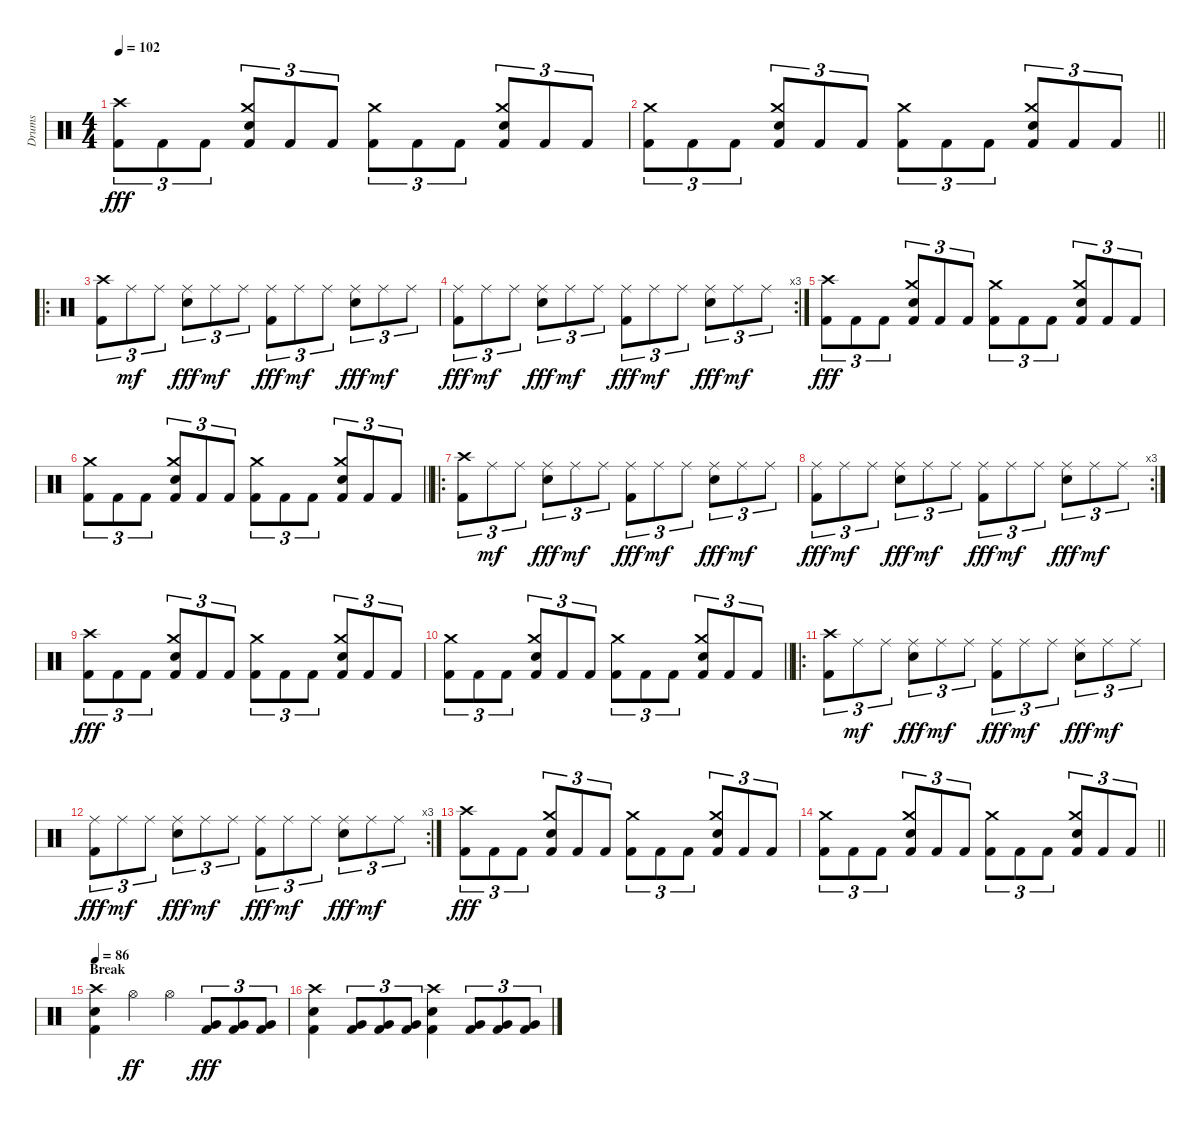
\track ("Drums" "Drums") {instrument percussion}
\staff {score}
\articulation defaults
\ts (4 4)
\tempo 102
\clef neutral
\ks c
("Crash high (hit)" "Kick (hit) 2").8{tu (3 2) dy fff} "Kick (hit) 2".8{tu (3 2)} "Kick (hit) 2".8{tu (3 2)} ("Crash medium (hit)" "Electric Snare (hit)" "Kick (hit) 2").8{tu (3 2)} "Kick (hit) 2".8{tu (3 2)} "Kick (hit) 2".8{tu (3 2)} ("Crash medium (hit)" "Kick (hit) 2").8{tu (3 2)} "Kick (hit) 2".8{tu (3 2)} "Kick (hit) 2".8{tu (3 2)} ("Crash medium (hit)" "Electric Snare (hit)" "Kick (hit) 2").8{tu (3 2)} "Kick (hit) 2".8{tu (3 2)} "Kick (hit) 2".8{tu (3 2)} |
\barLineRight lightlight
("Crash medium (hit)" "Kick (hit) 2").8{tu (3 2)} "Kick (hit) 2".8{tu (3 2)} "Kick (hit) 2".8{tu (3 2)} ("Crash medium (hit)" "Electric Snare (hit)" "Kick (hit) 2").8{tu (3 2)} "Kick (hit) 2".8{tu (3 2)} "Kick (hit) 2".8{tu (3 2)} ("Crash medium (hit)" "Kick (hit) 2").8{tu (3 2)} "Kick (hit) 2".8{tu (3 2)} "Kick (hit) 2".8{tu (3 2)} ("Crash medium (hit)" "Electric Snare (hit)" "Kick (hit) 2").8{tu (3 2)} "Kick (hit) 2".8{tu (3 2)} "Kick (hit) 2".8{tu (3 2)} |
\ro
("Crash high (hit)" "Kick (hit) 2").8{tu (3 2)} "Ride (middle)".8{tu (3 2) dy mf} "Ride (middle)".8{tu (3 2)} ("Ride (middle)" "Electric Snare (hit)").8{tu (3 2) dy fff} "Ride (middle)".8{tu (3 2) dy mf} "Ride (middle)".8{tu (3 2)} ("Ride (middle)" "Kick (hit) 2").8{tu (3 2) dy fff} "Ride (middle)".8{tu (3 2) dy mf} "Ride (middle)".8{tu (3 2)} ("Ride (middle)" "Electric Snare (hit)").8{tu (3 2) dy fff} "Ride (middle)".8{tu (3 2) dy mf} "Ride (middle)".8{tu (3 2)} |
\rc 3
("Ride (middle)" "Kick (hit) 2").8{tu (3 2) dy fff} "Ride (middle)".8{tu (3 2) dy mf} "Ride (middle)".8{tu (3 2)} ("Ride (middle)" "Electric Snare (hit)").8{tu (3 2) dy fff} "Ride (middle)".8{tu (3 2) dy mf} "Ride (middle)".8{tu (3 2)} ("Ride (middle)" "Kick (hit) 2").8{tu (3 2) dy fff} "Ride (middle)".8{tu (3 2) dy mf} "Ride (middle)".8{tu (3 2)} ("Ride (middle)" "Electric Snare (hit)").8{tu (3 2) dy fff} "Ride (middle)".8{tu (3 2) dy mf} "Ride (middle)".8{tu (3 2)} |
("Crash high (hit)" "Kick (hit) 2").8{tu (3 2) dy fff} "Kick (hit) 2".8{tu (3 2)} "Kick (hit) 2".8{tu (3 2)} ("Crash medium (hit)" "Electric Snare (hit)" "Kick (hit) 2").8{tu (3 2)} "Kick (hit) 2".8{tu (3 2)} "Kick (hit) 2".8{tu (3 2)} ("Crash medium (hit)" "Kick (hit) 2").8{tu (3 2)} "Kick (hit) 2".8{tu (3 2)} "Kick (hit) 2".8{tu (3 2)} ("Crash medium (hit)" "Electric Snare (hit)" "Kick (hit) 2").8{tu (3 2)} "Kick (hit) 2".8{tu (3 2)} "Kick (hit) 2".8{tu (3 2)} |
\barLineRight lightlight
("Crash medium (hit)" "Kick (hit) 2").8{tu (3 2)} "Kick (hit) 2".8{tu (3 2)} "Kick (hit) 2".8{tu (3 2)} ("Crash medium (hit)" "Electric Snare (hit)" "Kick (hit) 2").8{tu (3 2)} "Kick (hit) 2".8{tu (3 2)} "Kick (hit) 2".8{tu (3 2)} ("Crash medium (hit)" "Kick (hit) 2").8{tu (3 2)} "Kick (hit) 2".8{tu (3 2)} "Kick (hit) 2".8{tu (3 2)} ("Crash medium (hit)" "Electric Snare (hit)" "Kick (hit) 2").8{tu (3 2)} "Kick (hit) 2".8{tu (3 2)} "Kick (hit) 2".8{tu (3 2)} |
\ro
("Crash high (hit)" "Kick (hit) 2").8{tu (3 2)} "Ride (middle)".8{tu (3 2) dy mf} "Ride (middle)".8{tu (3 2)} ("Ride (middle)" "Electric Snare (hit)").8{tu (3 2) dy fff} "Ride (middle)".8{tu (3 2) dy mf} "Ride (middle)".8{tu (3 2)} ("Ride (middle)" "Kick (hit) 2").8{tu (3 2) dy fff} "Ride (middle)".8{tu (3 2) dy mf} "Ride (middle)".8{tu (3 2)} ("Ride (middle)" "Electric Snare (hit)").8{tu (3 2) dy fff} "Ride (middle)".8{tu (3 2) dy mf} "Ride (middle)".8{tu (3 2)} |
\rc 3
("Ride (middle)" "Kick (hit) 2").8{tu (3 2) dy fff} "Ride (middle)".8{tu (3 2) dy mf} "Ride (middle)".8{tu (3 2)} ("Ride (middle)" "Electric Snare (hit)").8{tu (3 2) dy fff} "Ride (middle)".8{tu (3 2) dy mf} "Ride (middle)".8{tu (3 2)} ("Ride (middle)" "Kick (hit) 2").8{tu (3 2) dy fff} "Ride (middle)".8{tu (3 2) dy mf} "Ride (middle)".8{tu (3 2)} ("Ride (middle)" "Electric Snare (hit)").8{tu (3 2) dy fff} "Ride (middle)".8{tu (3 2) dy mf} "Ride (middle)".8{tu (3 2)} |
("Crash high (hit)" "Kick (hit) 2").8{tu (3 2) dy fff} "Kick (hit) 2".8{tu (3 2)} "Kick (hit) 2".8{tu (3 2)} ("Crash medium (hit)" "Electric Snare (hit)" "Kick (hit) 2").8{tu (3 2)} "Kick (hit) 2".8{tu (3 2)} "Kick (hit) 2".8{tu (3 2)} ("Crash medium (hit)" "Kick (hit) 2").8{tu (3 2)} "Kick (hit) 2".8{tu (3 2)} "Kick (hit) 2".8{tu (3 2)} ("Crash medium (hit)" "Electric Snare (hit)" "Kick (hit) 2").8{tu (3 2)} "Kick (hit) 2".8{tu (3 2)} "Kick (hit) 2".8{tu (3 2)} |
\barLineRight lightlight
("Crash medium (hit)" "Kick (hit) 2").8{tu (3 2)} "Kick (hit) 2".8{tu (3 2)} "Kick (hit) 2".8{tu (3 2)} ("Crash medium (hit)" "Electric Snare (hit)" "Kick (hit) 2").8{tu (3 2)} "Kick (hit) 2".8{tu (3 2)} "Kick (hit) 2".8{tu (3 2)} ("Crash medium (hit)" "Kick (hit) 2").8{tu (3 2)} "Kick (hit) 2".8{tu (3 2)} "Kick (hit) 2".8{tu (3 2)} ("Crash medium (hit)" "Electric Snare (hit)" "Kick (hit) 2").8{tu (3 2)} "Kick (hit) 2".8{tu (3 2)} "Kick (hit) 2".8{tu (3 2)} |
\ro
("Crash high (hit)" "Kick (hit) 2").8{tu (3 2)} "Ride (middle)".8{tu (3 2) dy mf} "Ride (middle)".8{tu (3 2)} ("Ride (middle)" "Electric Snare (hit)").8{tu (3 2) dy fff} "Ride (middle)".8{tu (3 2) dy mf} "Ride (middle)".8{tu (3 2)} ("Ride (middle)" "Kick (hit) 2").8{tu (3 2) dy fff} "Ride (middle)".8{tu (3 2) dy mf} "Ride (middle)".8{tu (3 2)} ("Ride (middle)" "Electric Snare (hit)").8{tu (3 2) dy fff} "Ride (middle)".8{tu (3 2) dy mf} "Ride (middle)".8{tu (3 2)} |
\rc 3
("Ride (middle)" "Kick (hit) 2").8{tu (3 2) dy fff} "Ride (middle)".8{tu (3 2) dy mf} "Ride (middle)".8{tu (3 2)} ("Ride (middle)" "Electric Snare (hit)").8{tu (3 2) dy fff} "Ride (middle)".8{tu (3 2) dy mf} "Ride (middle)".8{tu (3 2)} ("Ride (middle)" "Kick (hit) 2").8{tu (3 2) dy fff} "Ride (middle)".8{tu (3 2) dy mf} "Ride (middle)".8{tu (3 2)} ("Ride (middle)" "Electric Snare (hit)").8{tu (3 2) dy fff} "Ride (middle)".8{tu (3 2) dy mf} "Ride (middle)".8{tu (3 2)} |
("Crash high (hit)" "Kick (hit) 2").8{tu (3 2) dy fff} "Kick (hit) 2".8{tu (3 2)} "Kick (hit) 2".8{tu (3 2)} ("Crash medium (hit)" "Electric Snare (hit)" "Kick (hit) 2").8{tu (3 2)} "Kick (hit) 2".8{tu (3 2)} "Kick (hit) 2".8{tu (3 2)} ("Crash medium (hit)" "Kick (hit) 2").8{tu (3 2)} "Kick (hit) 2".8{tu (3 2)} "Kick (hit) 2".8{tu (3 2)} ("Crash medium (hit)" "Electric Snare (hit)" "Kick (hit) 2").8{tu (3 2)} "Kick (hit) 2".8{tu (3 2)} "Kick (hit) 2".8{tu (3 2)} |
\barLineRight lightlight
("Crash medium (hit)" "Kick (hit) 2").8{tu (3 2)} "Kick (hit) 2".8{tu (3 2)} "Kick (hit) 2".8{tu (3 2)} ("Crash medium (hit)" "Electric Snare (hit)" "Kick (hit) 2").8{tu (3 2)} "Kick (hit) 2".8{tu (3 2)} "Kick (hit) 2".8{tu (3 2)} ("Crash medium (hit)" "Kick (hit) 2").8{tu (3 2)} "Kick (hit) 2".8{tu (3 2)} "Kick (hit) 2".8{tu (3 2)} ("Crash medium (hit)" "Electric Snare (hit)" "Kick (hit) 2").8{tu (3 2)} "Kick (hit) 2".8{tu (3 2)} "Kick (hit) 2".8{tu (3 2)} |
\section ("" "Break")
\tempo 86
("Crash high (hit)" "Electric Snare (hit)" "Kick (hit) 2").4 "Hi-Hat (open)".4{dy ff} "Hi-Hat (open)".4 ("Very Low Tom (hit)" "Kick (hit) 2").8{tu (3 2) dy fff} ("Very Low Tom (hit)" "Kick (hit) 2").8{tu (3 2)} ("Very Low Tom (hit)" "Kick (hit) 2").8{tu (3 2)} |
("Crash high (hit)" "Electric Snare (hit)" "Kick (hit) 2").4 ("Very Low Tom (hit)" "Kick (hit) 2").8{tu (3 2)} ("Very Low Tom (hit)" "Kick (hit) 2").8{tu (3 2)} ("Very Low Tom (hit)" "Kick (hit) 2").8{tu (3 2)} ("Crash high (hit)" "Electric Snare (hit)" "Kick (hit) 2").4 ("Very Low Tom (hit)" "Kick (hit) 2").8{tu (3 2)} ("Very Low Tom (hit)" "Kick (hit) 2").8{tu (3 2)} ("Very Low Tom (hit)" "Kick (hit) 2").8{tu (3 2)}
